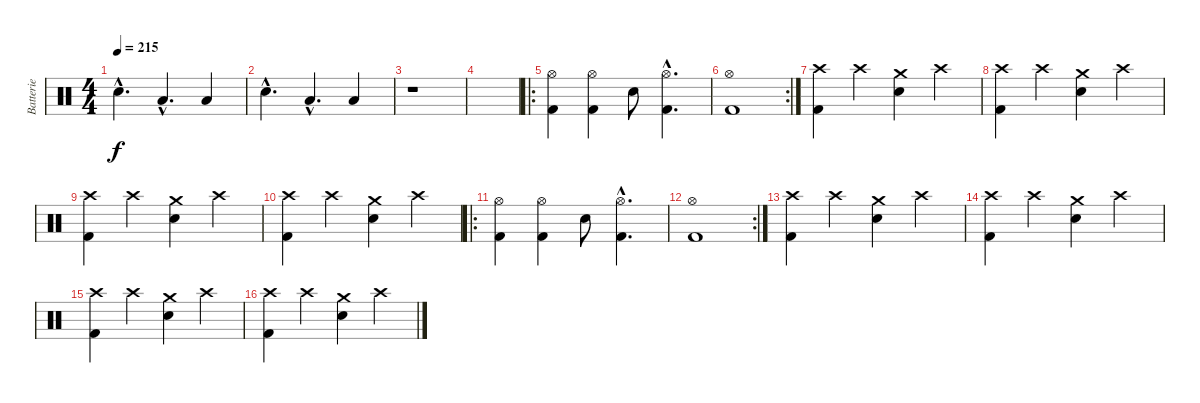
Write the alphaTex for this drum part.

\track ("Batterie" "Batterie") {instrument percussion}
\staff {score}
\articulation defaults
\ts (4 4)
\tempo 215
\clef neutral
\ks c "Electric Snare (hit)"{hac}.4{d dy f} "Low Floor Tom (hit)"{hac}.4{d} "Low Floor Tom (hit)".4
|
"Electric Snare (hit)"{hac}.4{d} "Low Floor Tom (hit)"{hac}.4{d} "Low Floor Tom (hit)".4 |
r.1 |
|
\ro
("Hi-Hat (open)" "Kick (hit) 2").4 ("Hi-Hat (open)" "Kick (hit) 2").4 "Electric Snare (hit)".8 ("Hi-Hat (open)"{hac} "Kick (hit) 2"{hac}).4{d} |
\rc 2
("Hi-Hat (open)" "Kick (hit) 2").1 |
("Crash high (hit)" "Kick (hit) 2").4 "Crash high (hit)".4 ("Crash medium (hit)" "Electric Snare (hit)").4 "Crash high (hit)".4 |
("Crash high (hit)" "Kick (hit) 2").4 "Crash high (hit)".4 ("Crash medium (hit)" "Electric Snare (hit)").4 "Crash high (hit)".4 |
("Crash high (hit)" "Kick (hit) 2").4 "Crash high (hit)".4 ("Crash medium (hit)" "Electric Snare (hit)").4 "Crash high (hit)".4 |
("Crash high (hit)" "Kick (hit) 2").4 "Crash high (hit)".4 ("Crash medium (hit)" "Electric Snare (hit)").4 "Crash high (hit)".4 |
\ro
("Hi-Hat (open)" "Kick (hit) 2").4 ("Hi-Hat (open)" "Kick (hit) 2").4 "Electric Snare (hit)".8 ("Hi-Hat (open)"{hac} "Kick (hit) 2"{hac}).4{d} |
\rc 2
("Hi-Hat (open)" "Kick (hit) 2").1 |
("Crash high (hit)" "Kick (hit) 2").4 "Crash high (hit)".4 ("Crash medium (hit)" "Electric Snare (hit)").4 "Crash high (hit)".4 |
("Crash high (hit)" "Kick (hit) 2").4 "Crash high (hit)".4 ("Crash medium (hit)" "Electric Snare (hit)").4 "Crash high (hit)".4 |
("Crash high (hit)" "Kick (hit) 2").4 "Crash high (hit)".4 ("Crash medium (hit)" "Electric Snare (hit)").4 "Crash high (hit)".4 |
("Crash high (hit)" "Kick (hit) 2").4 "Crash high (hit)".4 ("Crash medium (hit)" "Electric Snare (hit)").4 "Crash high (hit)".4
